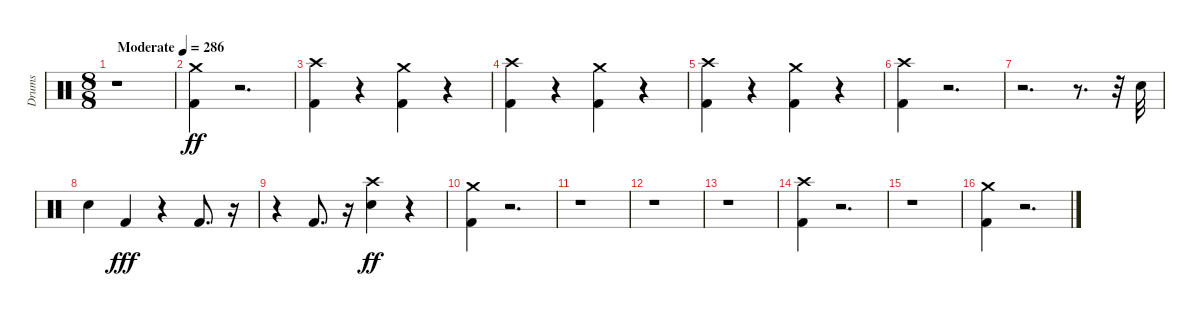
\track ("Drums" "Drums") {instrument percussion}
\staff {score}
\articulation defaults
\ts (8 8)
\tempo (286 "Moderate")
\clef neutral
\ks c
r.1{dy ff} |
("Kick (hit) 2" "Crash medium (hit)").4 r.2{d} |
("Kick (hit) 2" "Crash high (hit)").4 r.4 ("Kick (hit) 2" "Crash medium (hit)").4 r.4 |
("Kick (hit) 2" "Crash high (hit)").4 r.4 ("Kick (hit) 2" "Crash medium (hit)").4 r.4 |
("Kick (hit) 2" "Crash high (hit)").4 r.4 ("Kick (hit) 2" "Crash medium (hit)").4 r.4 |
("Kick (hit) 2" "Crash high (hit)").4 r.2{d} |
r.2{d} r.8{d} r.32 "Snare (hit) 2".32 |
"Snare (hit) 2".4 "Kick (hit) 2".4{dy fff} r.4 "Kick (hit) 2".8{d} r.16 |
r.4 "Kick (hit) 2".8{d} r.16 ("Snare (hit) 2" "Crash high (hit)").4{dy ff} r.4 |
("Kick (hit) 2" "Crash medium (hit)").4 r.2{d} |
r.1 |
r.1 |
r.1 |
("Kick (hit) 2" "Crash high (hit)").4 r.2{d} |
r.1 |
("Kick (hit) 2" "Crash medium (hit)").4 r.2{d}
